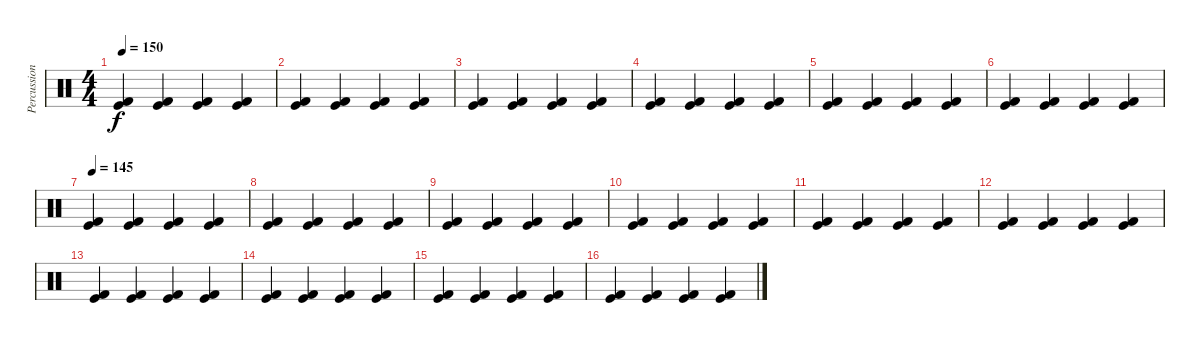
\track ("Percussion" "Percussion") {instrument percussion}
\staff {score}
\articulation defaults
\ts (4 4)
\tempo 150
\clef neutral
\ks c
("Kick (hit) 2" "Kick (hit)").4{dy f} ("Kick (hit) 2" "Kick (hit)").4 ("Kick (hit) 2" "Kick (hit)").4 ("Kick (hit) 2" "Kick (hit)").4 |
("Kick (hit) 2" "Kick (hit)").4 ("Kick (hit) 2" "Kick (hit)").4 ("Kick (hit) 2" "Kick (hit)").4 ("Kick (hit) 2" "Kick (hit)").4 |
("Kick (hit) 2" "Kick (hit)").4 ("Kick (hit) 2" "Kick (hit)").4 ("Kick (hit) 2" "Kick (hit)").4 ("Kick (hit) 2" "Kick (hit)").4 |
("Kick (hit) 2" "Kick (hit)").4 ("Kick (hit) 2" "Kick (hit)").4 ("Kick (hit) 2" "Kick (hit)").4 ("Kick (hit) 2" "Kick (hit)").4 |
("Kick (hit) 2" "Kick (hit)").4 ("Kick (hit) 2" "Kick (hit)").4 ("Kick (hit) 2" "Kick (hit)").4 ("Kick (hit) 2" "Kick (hit)").4 |
("Kick (hit) 2" "Kick (hit)").4 ("Kick (hit) 2" "Kick (hit)").4 ("Kick (hit) 2" "Kick (hit)").4 ("Kick (hit) 2" "Kick (hit)").4 |
\tempo 145
("Kick (hit) 2" "Kick (hit)").4 ("Kick (hit) 2" "Kick (hit)").4 ("Kick (hit) 2" "Kick (hit)").4 ("Kick (hit) 2" "Kick (hit)").4 |
("Kick (hit) 2" "Kick (hit)").4 ("Kick (hit) 2" "Kick (hit)").4 ("Kick (hit) 2" "Kick (hit)").4 ("Kick (hit) 2" "Kick (hit)").4 |
("Kick (hit) 2" "Kick (hit)").4 ("Kick (hit) 2" "Kick (hit)").4 ("Kick (hit) 2" "Kick (hit)").4 ("Kick (hit) 2" "Kick (hit)").4 |
("Kick (hit) 2" "Kick (hit)").4 ("Kick (hit) 2" "Kick (hit)").4 ("Kick (hit) 2" "Kick (hit)").4 ("Kick (hit) 2" "Kick (hit)").4 |
("Kick (hit) 2" "Kick (hit)").4 ("Kick (hit) 2" "Kick (hit)").4 ("Kick (hit) 2" "Kick (hit)").4 ("Kick (hit) 2" "Kick (hit)").4 |
("Kick (hit) 2" "Kick (hit)").4 ("Kick (hit) 2" "Kick (hit)").4 ("Kick (hit) 2" "Kick (hit)").4 ("Kick (hit) 2" "Kick (hit)").4 |
("Kick (hit) 2" "Kick (hit)").4 ("Kick (hit) 2" "Kick (hit)").4 ("Kick (hit) 2" "Kick (hit)").4 ("Kick (hit) 2" "Kick (hit)").4 |
("Kick (hit) 2" "Kick (hit)").4 ("Kick (hit) 2" "Kick (hit)").4 ("Kick (hit) 2" "Kick (hit)").4 ("Kick (hit) 2" "Kick (hit)").4 |
("Kick (hit) 2" "Kick (hit)").4 ("Kick (hit) 2" "Kick (hit)").4 ("Kick (hit) 2" "Kick (hit)").4 ("Kick (hit) 2" "Kick (hit)").4 |
("Kick (hit) 2" "Kick (hit)").4 ("Kick (hit) 2" "Kick (hit)").4 ("Kick (hit) 2" "Kick (hit)").4 ("Kick (hit) 2" "Kick (hit)").4
